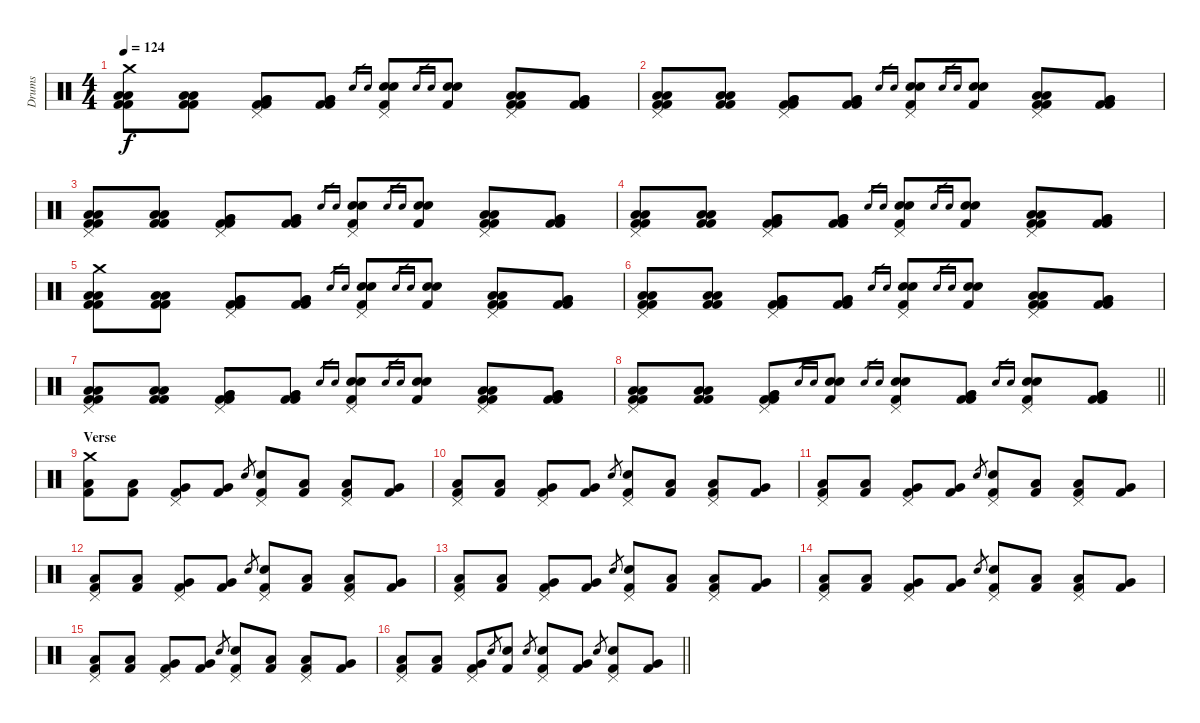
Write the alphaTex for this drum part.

\track ("Drums" "Drums") {instrument percussion}
\staff {score}
\articulation defaults
\ts (4 4)
\tempo 124
\clef neutral
\ks c
("Crash medium (hit)" "Low Tom (hit)" "Low Tom (hit)" "Kick (hit) 2" "Kick (hit) 2").8{dy f} ("Low Tom (hit)" "Low Tom (hit)" "Kick (hit) 2" "Kick (hit) 2").8 ("Pedal Hi-Hat (hit)" "Very Low Tom (hit)" "Very Low Tom (hit)" "Kick (hit) 2" "Kick (hit) 2").8 ("Very Low Tom (hit)" "Very Low Tom (hit)" "Kick (hit) 2" "Kick (hit) 2").8 "Electric Snare (hit)".16{gr} "Electric Snare (hit)".16{gr} ("Pedal Hi-Hat (hit)" "Electric Snare (hit)" "Electric Snare (hit)" "Kick (hit) 2").8 "Electric Snare (hit)".16{gr} "Electric Snare (hit)".16{gr} ("Electric Snare (hit)" "Electric Snare (hit)" "Kick (hit) 2").8 ("Pedal Hi-Hat (hit)" "Low Tom (hit)" "Low Tom (hit)" "Kick (hit) 2" "Kick (hit) 2").8 ("Very Low Tom (hit)" "Very Low Tom (hit)" "Kick (hit) 2" "Kick (hit) 2").8 |
("Pedal Hi-Hat (hit)" "Low Tom (hit)" "Low Tom (hit)" "Kick (hit) 2" "Kick (hit) 2").8 ("Low Tom (hit)" "Low Tom (hit)" "Kick (hit) 2" "Kick (hit) 2").8 ("Pedal Hi-Hat (hit)" "Very Low Tom (hit)" "Very Low Tom (hit)" "Kick (hit) 2" "Kick (hit) 2").8 ("Very Low Tom (hit)" "Very Low Tom (hit)" "Kick (hit) 2" "Kick (hit) 2").8 "Electric Snare (hit)".16{gr} "Electric Snare (hit)".16{gr} ("Pedal Hi-Hat (hit)" "Electric Snare (hit)" "Electric Snare (hit)" "Kick (hit) 2").8 "Electric Snare (hit)".16{gr} "Electric Snare (hit)".16{gr} ("Electric Snare (hit)" "Electric Snare (hit)" "Kick (hit) 2").8 ("Pedal Hi-Hat (hit)" "Low Tom (hit)" "Low Tom (hit)" "Kick (hit) 2" "Kick (hit) 2").8 ("Very Low Tom (hit)" "Very Low Tom (hit)" "Kick (hit) 2" "Kick (hit) 2").8 |
("Pedal Hi-Hat (hit)" "Low Tom (hit)" "Low Tom (hit)" "Kick (hit) 2" "Kick (hit) 2").8 ("Low Tom (hit)" "Low Tom (hit)" "Kick (hit) 2" "Kick (hit) 2").8 ("Pedal Hi-Hat (hit)" "Very Low Tom (hit)" "Very Low Tom (hit)" "Kick (hit) 2" "Kick (hit) 2").8 ("Very Low Tom (hit)" "Very Low Tom (hit)" "Kick (hit) 2" "Kick (hit) 2").8 "Electric Snare (hit)".16{gr} "Electric Snare (hit)".16{gr} ("Pedal Hi-Hat (hit)" "Electric Snare (hit)" "Electric Snare (hit)" "Kick (hit) 2").8 "Electric Snare (hit)".16{gr} "Electric Snare (hit)".16{gr} ("Electric Snare (hit)" "Electric Snare (hit)" "Kick (hit) 2").8 ("Pedal Hi-Hat (hit)" "Low Tom (hit)" "Low Tom (hit)" "Kick (hit) 2" "Kick (hit) 2").8 ("Very Low Tom (hit)" "Very Low Tom (hit)" "Kick (hit) 2" "Kick (hit) 2").8 |
("Pedal Hi-Hat (hit)" "Low Tom (hit)" "Low Tom (hit)" "Kick (hit) 2" "Kick (hit) 2").8 ("Low Tom (hit)" "Low Tom (hit)" "Kick (hit) 2" "Kick (hit) 2").8 ("Pedal Hi-Hat (hit)" "Very Low Tom (hit)" "Very Low Tom (hit)" "Kick (hit) 2" "Kick (hit) 2").8 ("Very Low Tom (hit)" "Very Low Tom (hit)" "Kick (hit) 2" "Kick (hit) 2").8 "Electric Snare (hit)".16{gr} "Electric Snare (hit)".16{gr} ("Pedal Hi-Hat (hit)" "Electric Snare (hit)" "Electric Snare (hit)" "Kick (hit) 2").8 "Electric Snare (hit)".16{gr} "Electric Snare (hit)".16{gr} ("Electric Snare (hit)" "Electric Snare (hit)" "Kick (hit) 2").8 ("Pedal Hi-Hat (hit)" "Low Tom (hit)" "Low Tom (hit)" "Kick (hit) 2" "Kick (hit) 2").8 ("Very Low Tom (hit)" "Very Low Tom (hit)" "Kick (hit) 2" "Kick (hit) 2").8 |
("Crash medium (hit)" "Low Tom (hit)" "Low Tom (hit)" "Kick (hit) 2" "Kick (hit) 2").8 ("Low Tom (hit)" "Low Tom (hit)" "Kick (hit) 2" "Kick (hit) 2").8 ("Pedal Hi-Hat (hit)" "Very Low Tom (hit)" "Very Low Tom (hit)" "Kick (hit) 2" "Kick (hit) 2").8 ("Very Low Tom (hit)" "Very Low Tom (hit)" "Kick (hit) 2" "Kick (hit) 2").8 "Electric Snare (hit)".16{gr} "Electric Snare (hit)".16{gr} ("Pedal Hi-Hat (hit)" "Electric Snare (hit)" "Electric Snare (hit)" "Kick (hit) 2").8 "Electric Snare (hit)".16{gr} "Electric Snare (hit)".16{gr} ("Electric Snare (hit)" "Electric Snare (hit)" "Kick (hit) 2").8 ("Pedal Hi-Hat (hit)" "Low Tom (hit)" "Low Tom (hit)" "Kick (hit) 2" "Kick (hit) 2").8 ("Very Low Tom (hit)" "Very Low Tom (hit)" "Kick (hit) 2" "Kick (hit) 2").8 |
("Pedal Hi-Hat (hit)" "Low Tom (hit)" "Low Tom (hit)" "Kick (hit) 2" "Kick (hit) 2").8 ("Low Tom (hit)" "Low Tom (hit)" "Kick (hit) 2" "Kick (hit) 2").8 ("Pedal Hi-Hat (hit)" "Very Low Tom (hit)" "Very Low Tom (hit)" "Kick (hit) 2" "Kick (hit) 2").8 ("Very Low Tom (hit)" "Very Low Tom (hit)" "Kick (hit) 2" "Kick (hit) 2").8 "Electric Snare (hit)".16{gr} "Electric Snare (hit)".16{gr} ("Pedal Hi-Hat (hit)" "Electric Snare (hit)" "Electric Snare (hit)" "Kick (hit) 2").8 "Electric Snare (hit)".16{gr} "Electric Snare (hit)".16{gr} ("Electric Snare (hit)" "Electric Snare (hit)" "Kick (hit) 2").8 ("Pedal Hi-Hat (hit)" "Low Tom (hit)" "Low Tom (hit)" "Kick (hit) 2" "Kick (hit) 2").8 ("Very Low Tom (hit)" "Very Low Tom (hit)" "Kick (hit) 2" "Kick (hit) 2").8 |
("Pedal Hi-Hat (hit)" "Low Tom (hit)" "Low Tom (hit)" "Kick (hit) 2" "Kick (hit) 2").8 ("Low Tom (hit)" "Low Tom (hit)" "Kick (hit) 2" "Kick (hit) 2").8 ("Pedal Hi-Hat (hit)" "Very Low Tom (hit)" "Very Low Tom (hit)" "Kick (hit) 2" "Kick (hit) 2").8 ("Very Low Tom (hit)" "Very Low Tom (hit)" "Kick (hit) 2" "Kick (hit) 2").8 "Electric Snare (hit)".16{gr} "Electric Snare (hit)".16{gr} ("Pedal Hi-Hat (hit)" "Electric Snare (hit)" "Electric Snare (hit)" "Kick (hit) 2").8 "Electric Snare (hit)".16{gr} "Electric Snare (hit)".16{gr} ("Electric Snare (hit)" "Electric Snare (hit)" "Kick (hit) 2").8 ("Pedal Hi-Hat (hit)" "Low Tom (hit)" "Low Tom (hit)" "Kick (hit) 2" "Kick (hit) 2").8 ("Very Low Tom (hit)" "Very Low Tom (hit)" "Kick (hit) 2" "Kick (hit) 2").8 |
\barLineRight lightlight
("Pedal Hi-Hat (hit)" "Low Tom (hit)" "Low Tom (hit)" "Kick (hit) 2" "Kick (hit) 2").8 ("Low Tom (hit)" "Low Tom (hit)" "Kick (hit) 2" "Kick (hit) 2").8 ("Pedal Hi-Hat (hit)" "Very Low Tom (hit)" "Very Low Tom (hit)" "Kick (hit) 2" "Kick (hit) 2").8 "Electric Snare (hit)".16{gr} "Electric Snare (hit)".16{gr} ("Electric Snare (hit)" "Electric Snare (hit)" "Kick (hit) 2").8 "Electric Snare (hit)".16{gr} "Electric Snare (hit)".16{gr} ("Pedal Hi-Hat (hit)" "Electric Snare (hit)" "Electric Snare (hit)" "Kick (hit) 2").8 ("Very Low Tom (hit)" "Very Low Tom (hit)" "Kick (hit) 2" "Kick (hit) 2").8 "Electric Snare (hit)".16{gr} "Electric Snare (hit)".16{gr} ("Pedal Hi-Hat (hit)" "Electric Snare (hit)" "Electric Snare (hit)" "Kick (hit) 2").8 ("Very Low Tom (hit)" "Very Low Tom (hit)" "Kick (hit) 2" "Kick (hit) 2").8 |
\section ("" "Verse")
("Crash medium (hit)" "Low Tom (hit)" "Kick (hit) 2").8 ("Low Tom (hit)" "Kick (hit) 2").8 ("Pedal Hi-Hat (hit)" "Very Low Tom (hit)" "Kick (hit) 2").8 ("Very Low Tom (hit)" "Kick (hit) 2").8 "Electric Snare (hit)".8{gr} ("Pedal Hi-Hat (hit)" "Electric Snare (hit)" "Kick (hit) 2").8 ("Low Tom (hit)" "Kick (hit) 2").8 ("Pedal Hi-Hat (hit)" "Low Tom (hit)" "Kick (hit) 2").8 ("Very Low Tom (hit)" "Kick (hit) 2").8 |
("Pedal Hi-Hat (hit)" "Low Tom (hit)" "Kick (hit) 2").8 ("Low Tom (hit)" "Kick (hit) 2").8 ("Pedal Hi-Hat (hit)" "Very Low Tom (hit)" "Kick (hit) 2").8 ("Very Low Tom (hit)" "Kick (hit) 2").8 "Electric Snare (hit)".8{gr} ("Pedal Hi-Hat (hit)" "Electric Snare (hit)" "Kick (hit) 2").8 ("Low Tom (hit)" "Kick (hit) 2").8 ("Pedal Hi-Hat (hit)" "Low Tom (hit)" "Kick (hit) 2").8 ("Very Low Tom (hit)" "Kick (hit) 2").8 |
("Pedal Hi-Hat (hit)" "Low Tom (hit)" "Kick (hit) 2").8 ("Low Tom (hit)" "Kick (hit) 2").8 ("Pedal Hi-Hat (hit)" "Very Low Tom (hit)" "Kick (hit) 2").8 ("Very Low Tom (hit)" "Kick (hit) 2").8 "Electric Snare (hit)".8{gr} ("Pedal Hi-Hat (hit)" "Electric Snare (hit)" "Kick (hit) 2").8 ("Low Tom (hit)" "Kick (hit) 2").8 ("Pedal Hi-Hat (hit)" "Low Tom (hit)" "Kick (hit) 2").8 ("Very Low Tom (hit)" "Kick (hit) 2").8 |
("Pedal Hi-Hat (hit)" "Low Tom (hit)" "Kick (hit) 2").8 ("Low Tom (hit)" "Kick (hit) 2").8 ("Pedal Hi-Hat (hit)" "Very Low Tom (hit)" "Kick (hit) 2").8 ("Very Low Tom (hit)" "Kick (hit) 2").8 "Electric Snare (hit)".8{gr} ("Pedal Hi-Hat (hit)" "Electric Snare (hit)" "Kick (hit) 2").8 ("Low Tom (hit)" "Kick (hit) 2").8 ("Pedal Hi-Hat (hit)" "Low Tom (hit)" "Kick (hit) 2").8 ("Very Low Tom (hit)" "Kick (hit) 2").8 |
("Pedal Hi-Hat (hit)" "Low Tom (hit)" "Kick (hit) 2").8 ("Low Tom (hit)" "Kick (hit) 2").8 ("Pedal Hi-Hat (hit)" "Very Low Tom (hit)" "Kick (hit) 2").8 ("Very Low Tom (hit)" "Kick (hit) 2").8 "Electric Snare (hit)".8{gr} ("Pedal Hi-Hat (hit)" "Electric Snare (hit)" "Kick (hit) 2").8 ("Low Tom (hit)" "Kick (hit) 2").8 ("Pedal Hi-Hat (hit)" "Low Tom (hit)" "Kick (hit) 2").8 ("Very Low Tom (hit)" "Kick (hit) 2").8 |
("Pedal Hi-Hat (hit)" "Low Tom (hit)" "Kick (hit) 2").8 ("Low Tom (hit)" "Kick (hit) 2").8 ("Pedal Hi-Hat (hit)" "Very Low Tom (hit)" "Kick (hit) 2").8 ("Very Low Tom (hit)" "Kick (hit) 2").8 "Electric Snare (hit)".8{gr} ("Pedal Hi-Hat (hit)" "Electric Snare (hit)" "Kick (hit) 2").8 ("Low Tom (hit)" "Kick (hit) 2").8 ("Pedal Hi-Hat (hit)" "Low Tom (hit)" "Kick (hit) 2").8 ("Very Low Tom (hit)" "Kick (hit) 2").8 |
("Pedal Hi-Hat (hit)" "Low Tom (hit)" "Kick (hit) 2").8 ("Low Tom (hit)" "Kick (hit) 2").8 ("Pedal Hi-Hat (hit)" "Very Low Tom (hit)" "Kick (hit) 2").8 ("Very Low Tom (hit)" "Kick (hit) 2").8 "Electric Snare (hit)".8{gr} ("Pedal Hi-Hat (hit)" "Electric Snare (hit)" "Kick (hit) 2").8 ("Low Tom (hit)" "Kick (hit) 2").8 ("Pedal Hi-Hat (hit)" "Low Tom (hit)" "Kick (hit) 2").8 ("Very Low Tom (hit)" "Kick (hit) 2").8 |
\barLineRight lightlight
("Pedal Hi-Hat (hit)" "Low Tom (hit)" "Kick (hit) 2").8 ("Low Tom (hit)" "Kick (hit) 2").8 ("Pedal Hi-Hat (hit)" "Very Low Tom (hit)" "Kick (hit) 2").8 "Electric Snare (hit)".8{gr} ("Electric Snare (hit)" "Kick (hit) 2").8 "Electric Snare (hit)".8{gr} ("Pedal Hi-Hat (hit)" "Electric Snare (hit)" "Kick (hit) 2").8 ("Very Low Tom (hit)" "Kick (hit) 2").8 "Electric Snare (hit)".8{gr} ("Pedal Hi-Hat (hit)" "Electric Snare (hit)" "Kick (hit) 2").8 ("Very Low Tom (hit)" "Kick (hit) 2").8
